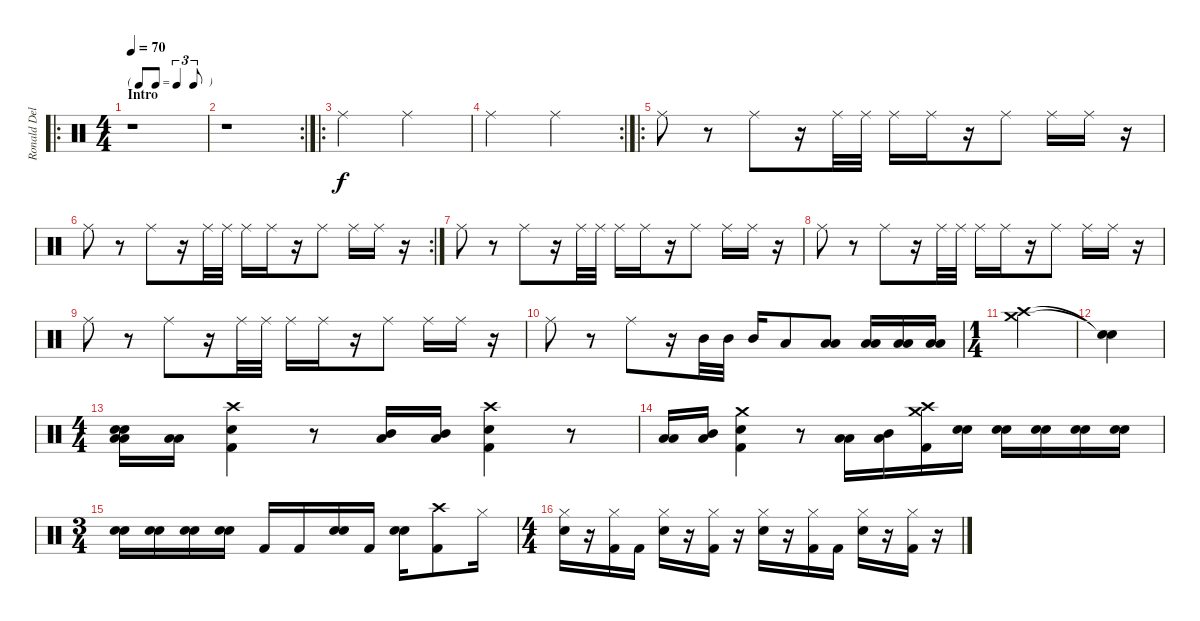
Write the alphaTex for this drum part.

\track ("Ronald Del Aguila (Bateria)" "Ronald Del") {instrument percussion}
\staff {score}
\articulation defaults
\ro
\ts (4 4)
\tf triplet8th
\section ("" "Intro")
\tempo 70
\clef neutral
\ks c
r.1{dy f} |
\rc 2
r.1 |
\ro "Ride (middle)".2 "Ride (middle)".2
|
\rc 2 "Ride (middle)".2 "Ride (middle)".2
|
\ro "Ride (middle)".8
r.8 "Ride (middle)".8 r.16 "Ride (middle)".32 "Ride (middle)".32 "Ride (middle)".16 "Ride (middle)".16 r.16 "Ride (middle)".8 "Ride (middle)".16 "Ride (middle)".16 r.16 |
\rc 2 "Ride (middle)".8
r.8 "Ride (middle)".8 r.16 "Ride (middle)".32 "Ride (middle)".32 "Ride (middle)".16 "Ride (middle)".16 r.16 "Ride (middle)".8 "Ride (middle)".16 "Ride (middle)".16 r.16 |
"Ride (middle)".8 r.8 "Ride (middle)".8 r.16 "Ride (middle)".32 "Ride (middle)".32 "Ride (middle)".16 "Ride (middle)".16 r.16 "Ride (middle)".8 "Ride (middle)".16 "Ride (middle)".16 r.16 |
"Ride (middle)".8 r.8 "Ride (middle)".8 r.16 "Ride (middle)".32 "Ride (middle)".32 "Ride (middle)".16 "Ride (middle)".16 r.16 "Ride (middle)".8 "Ride (middle)".16 "Ride (middle)".16 r.16 |
"Ride (middle)".8 r.8 "Ride (middle)".8 r.16 "Ride (middle)".32 "Ride (middle)".32 "Ride (middle)".16 "Ride (middle)".16 r.16 "Ride (middle)".8 "Ride (middle)".16 "Ride (middle)".16 r.16 |
"Ride (middle)".8 r.8 "Ride (middle)".8 r.16 "Mid Tom (hit)".32 "Mid Tom (hit)".32 "Mid Tom (hit)".16 "Low Tom (hit)".8 ("Low Tom (hit)" "Low Floor Tom (hit)").8 ("Low Tom (hit)" "Low Floor Tom (hit)").16 ("Low Tom (hit)" "Low Floor Tom (hit)").16 ("Low Tom (hit)" "Low Floor Tom (hit)").16 |
\ts (1 4)
("Crash medium (hit)" "Crash high (hit)").4 |
("Snare (hit)"{t} "Snare (hit)"{t}).4 |
\ts (4 4)
("Low Tom (hit)" "Low Floor Tom (hit)" "Snare (hit)" "Snare (hit)").16 ("Low Tom (hit)" "Low Floor Tom (hit)").16 ("Crash high (hit)" "Kick (hit) 2" "Snare (hit) 2").4 r.8 ("Mid Tom (hit)" "Low Floor Tom (hit)").16 ("Mid Tom (hit)" "Low Floor Tom (hit)").16 ("Crash high (hit)" "Kick (hit) 2" "Snare (hit) 2").4 r.8 |
("Low Tom (hit)" "Low Floor Tom (hit)").16 ("Mid Tom (hit)" "Low Floor Tom (hit)").16 ("Crash medium (hit)" "Kick (hit) 2" "Snare (hit) 2").4 r.8 ("Low Tom (hit)" "Low Floor Tom (hit)").16 ("Mid Tom (hit)" "Low Floor Tom (hit)").16 ("Crash high (hit)" "Crash medium (hit)" "Kick (hit) 2").16 ("Snare (hit) 2" "Snare (hit) 2").16{volume 3} ("Snare (hit) 2" "Snare (hit) 2").16{volume 5} ("Snare (hit) 2" "Snare (hit) 2").16{volume 7} ("Snare (hit) 2" "Snare (hit) 2").16{volume 9} ("Snare (hit) 2" "Snare (hit) 2").16{volume 11} |
\ts (3 4)
("Snare (hit) 2" "Snare (hit) 2").16{volume 13} ("Snare (hit) 2" "Snare (hit) 2").16 ("Snare (hit) 2" "Snare (hit) 2").16 ("Snare (hit) 2" "Snare (hit) 2").16 "Kick (hit) 2".16 "Kick (hit) 2".16 ("Snare (hit) 2" "Snare (hit) 2").16 "Kick (hit) 2".16 ("Snare (hit) 2" "Snare (hit) 2").16 ("Crash high (hit)" "Kick (hit) 2").8 "Hi-Hat (closed)".16 |
\ts (4 4)
("Hi-Hat (closed)" "Snare (hit) 2").16 r.16 ("Hi-Hat (closed)" "Kick (hit) 2").16 "Kick (hit) 2".16 ("Hi-Hat (closed)" "Snare (hit) 2").16 r.16 ("Hi-Hat (closed)" "Kick (hit) 2").16 r.16 ("Hi-Hat (closed)" "Snare (hit) 2").16 r.16 ("Hi-Hat (closed)" "Kick (hit) 2").16 "Kick (hit) 2".16 ("Hi-Hat (closed)" "Snare (hit) 2").16 r.16 ("Hi-Hat (closed)" "Kick (hit) 2").16 r.16
